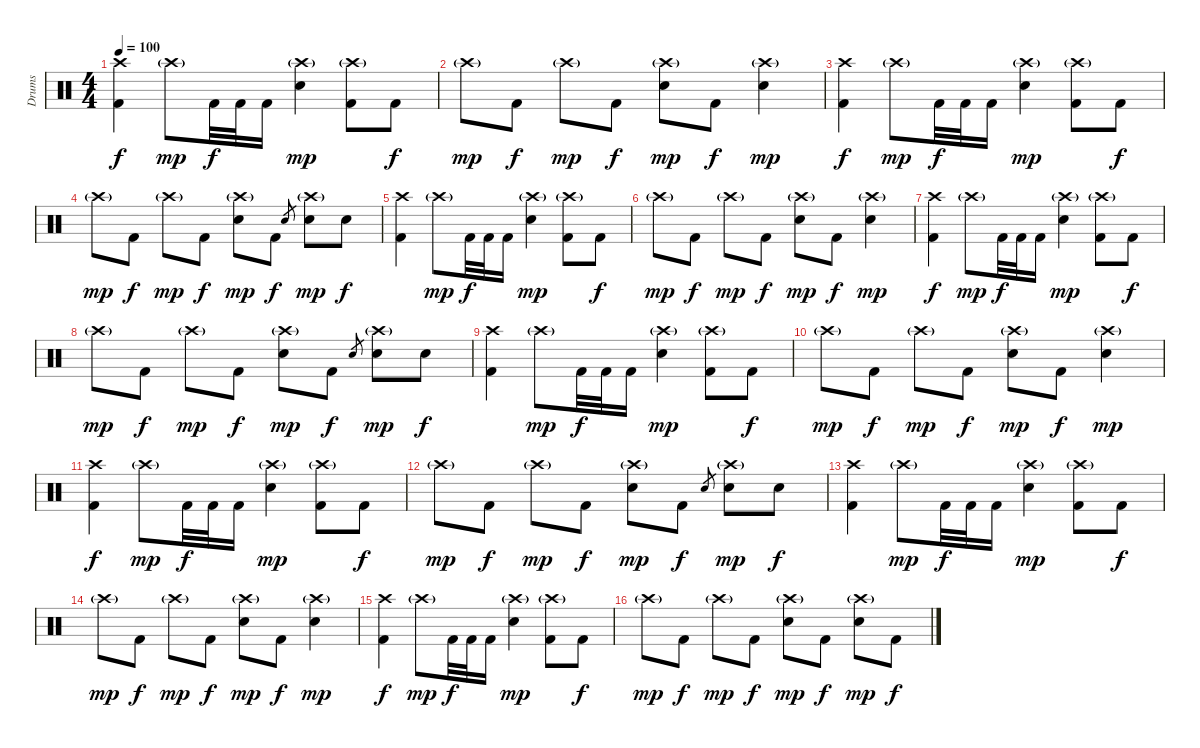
\track ("Drums" "Drums") {instrument percussion}
\staff {score}
\articulation defaults
\ts (4 4)
\tempo 100
\clef neutral
\ks c
("Crash high (hit)" "Kick (hit) 2").4{dy f} "Crash high (hit)"{g}.8{dy mp} "Kick (hit) 2".32{dy f} "Kick (hit) 2".32 "Kick (hit) 2".16 ("Crash high (hit)"{g} "Snare (hit) 2").4{dy mp} ("Crash high (hit)"{g} "Kick (hit) 2").8 "Kick (hit) 2".8{dy f} |
"Crash high (hit)"{g}.8{dy mp} "Kick (hit) 2".8{dy f} "Crash high (hit)"{g}.8{dy mp} "Kick (hit) 2".8{dy f} ("Crash high (hit)"{g} "Snare (hit) 2").8{dy mp} "Kick (hit) 2".8{dy f} ("Crash high (hit)"{g} "Snare (hit) 2").4{dy mp} |
("Crash high (hit)" "Kick (hit) 2").4{dy f} "Crash high (hit)"{g}.8{dy mp} "Kick (hit) 2".32{dy f} "Kick (hit) 2".32 "Kick (hit) 2".16 ("Crash high (hit)"{g} "Snare (hit) 2").4{dy mp} ("Crash high (hit)"{g} "Kick (hit) 2").8 "Kick (hit) 2".8{dy f} |
"Crash high (hit)"{g}.8{dy mp} "Kick (hit) 2".8{dy f} "Crash high (hit)"{g}.8{dy mp} "Kick (hit) 2".8{dy f} ("Crash high (hit)"{g} "Snare (hit) 2").8{dy mp} "Kick (hit) 2".8{dy f} "Snare (hit) 2".8{gr} ("Crash high (hit)"{g} "Snare (hit) 2").8{dy mp} "Snare (hit) 2".8{dy f} |
("Crash high (hit)" "Kick (hit) 2").4 "Crash high (hit)"{g}.8{dy mp} "Kick (hit) 2".32{dy f} "Kick (hit) 2".32 "Kick (hit) 2".16 ("Crash high (hit)"{g} "Snare (hit) 2").4{dy mp} ("Crash high (hit)"{g} "Kick (hit) 2").8 "Kick (hit) 2".8{dy f} |
"Crash high (hit)"{g}.8{dy mp} "Kick (hit) 2".8{dy f} "Crash high (hit)"{g}.8{dy mp} "Kick (hit) 2".8{dy f} ("Crash high (hit)"{g} "Snare (hit) 2").8{dy mp} "Kick (hit) 2".8{dy f} ("Crash high (hit)"{g} "Snare (hit) 2").4{dy mp} |
("Crash high (hit)" "Kick (hit) 2").4{dy f} "Crash high (hit)"{g}.8{dy mp} "Kick (hit) 2".32{dy f} "Kick (hit) 2".32 "Kick (hit) 2".16 ("Crash high (hit)"{g} "Snare (hit) 2").4{dy mp} ("Crash high (hit)"{g} "Kick (hit) 2").8 "Kick (hit) 2".8{dy f} |
"Crash high (hit)"{g}.8{dy mp} "Kick (hit) 2".8{dy f} "Crash high (hit)"{g}.8{dy mp} "Kick (hit) 2".8{dy f} ("Crash high (hit)"{g} "Snare (hit) 2").8{dy mp} "Kick (hit) 2".8{dy f} "Snare (hit) 2".8{gr} ("Crash high (hit)"{g} "Snare (hit) 2").8{dy mp} "Snare (hit) 2".8{dy f} |
("Crash high (hit)" "Kick (hit) 2").4 "Crash high (hit)"{g}.8{dy mp} "Kick (hit) 2".32{dy f} "Kick (hit) 2".32 "Kick (hit) 2".16 ("Crash high (hit)"{g} "Snare (hit) 2").4{dy mp} ("Crash high (hit)"{g} "Kick (hit) 2").8 "Kick (hit) 2".8{dy f} |
"Crash high (hit)"{g}.8{dy mp} "Kick (hit) 2".8{dy f} "Crash high (hit)"{g}.8{dy mp} "Kick (hit) 2".8{dy f} ("Crash high (hit)"{g} "Snare (hit) 2").8{dy mp} "Kick (hit) 2".8{dy f} ("Crash high (hit)"{g} "Snare (hit) 2").4{dy mp} |
("Crash high (hit)" "Kick (hit) 2").4{dy f} "Crash high (hit)"{g}.8{dy mp} "Kick (hit) 2".32{dy f} "Kick (hit) 2".32 "Kick (hit) 2".16 ("Crash high (hit)"{g} "Snare (hit) 2").4{dy mp} ("Crash high (hit)"{g} "Kick (hit) 2").8 "Kick (hit) 2".8{dy f} |
"Crash high (hit)"{g}.8{dy mp} "Kick (hit) 2".8{dy f} "Crash high (hit)"{g}.8{dy mp} "Kick (hit) 2".8{dy f} ("Crash high (hit)"{g} "Snare (hit) 2").8{dy mp} "Kick (hit) 2".8{dy f} "Snare (hit) 2".8{gr} ("Crash high (hit)"{g} "Snare (hit) 2").8{dy mp} "Snare (hit) 2".8{dy f} |
("Crash high (hit)" "Kick (hit) 2").4{volume 0} "Crash high (hit)"{g}.8{dy mp} "Kick (hit) 2".32{dy f} "Kick (hit) 2".32 "Kick (hit) 2".16 ("Crash high (hit)"{g} "Snare (hit) 2").4{dy mp} ("Crash high (hit)"{g} "Kick (hit) 2").8 "Kick (hit) 2".8{dy f} |
"Crash high (hit)"{g}.8{dy mp} "Kick (hit) 2".8{dy f} "Crash high (hit)"{g}.8{dy mp} "Kick (hit) 2".8{dy f} ("Crash high (hit)"{g} "Snare (hit) 2").8{dy mp} "Kick (hit) 2".8{dy f} ("Crash high (hit)"{g} "Snare (hit) 2").4{dy mp} |
("Crash high (hit)" "Kick (hit) 2").4{dy f} "Crash high (hit)"{g}.8{dy mp} "Kick (hit) 2".32{dy f} "Kick (hit) 2".32 "Kick (hit) 2".16 ("Crash high (hit)"{g} "Snare (hit) 2").4{dy mp} ("Crash high (hit)"{g} "Kick (hit) 2").8 "Kick (hit) 2".8{dy f} |
"Crash high (hit)"{g}.8{dy mp} "Kick (hit) 2".8{dy f} "Crash high (hit)"{g}.8{dy mp} "Kick (hit) 2".8{dy f} ("Crash high (hit)"{g} "Snare (hit) 2").8{dy mp} "Kick (hit) 2".8{dy f} ("Crash high (hit)"{g} "Snare (hit) 2").8{dy mp} "Kick (hit) 2".8{dy f}
